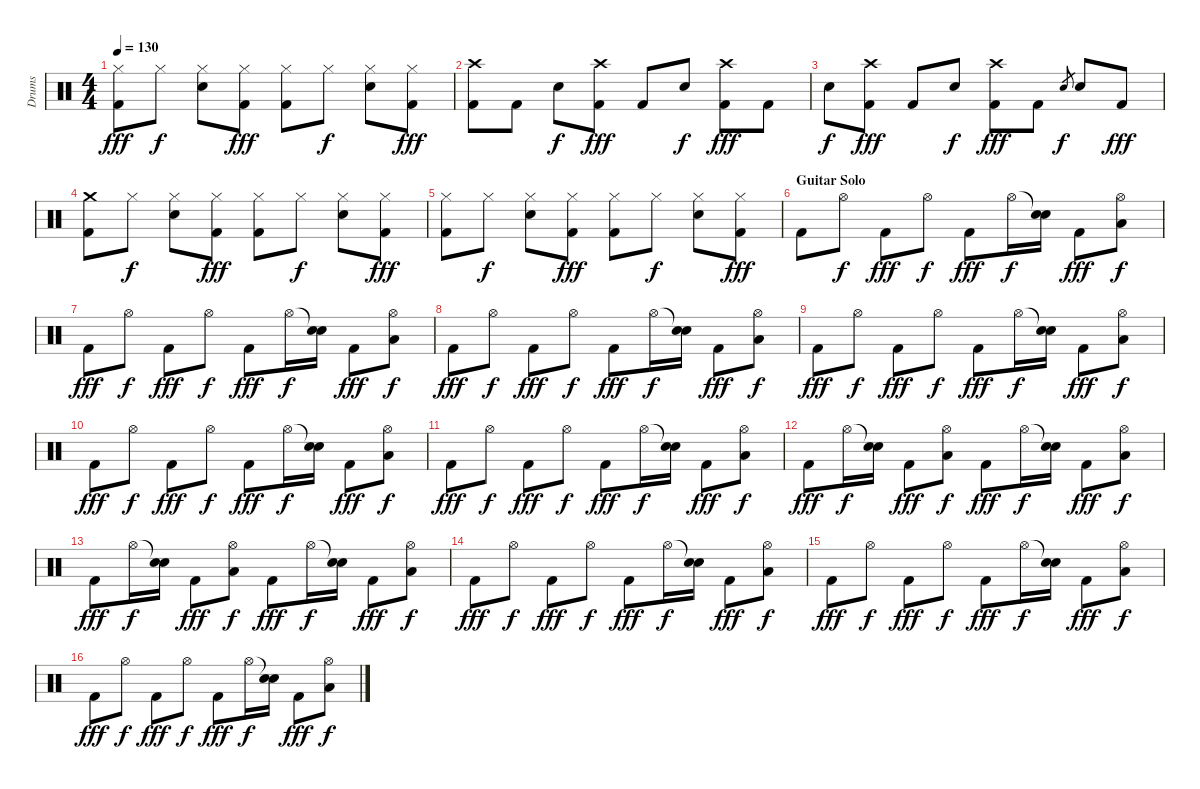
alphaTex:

\track ("Drums" "Drums") {instrument percussion}
\staff {score}
\articulation defaults
\ts (4 4)
\tempo 130
\clef neutral
\ks c
("Hi-Hat (closed)" "Kick (hit) 2").8{dy fff} "Hi-Hat (closed)".8{dy f} ("Hi-Hat (closed)" "Snare (hit) 2").8 ("Hi-Hat (closed)" "Kick (hit) 2").8{dy fff} ("Hi-Hat (closed)" "Kick (hit) 2").8 "Hi-Hat (closed)".8{dy f} ("Hi-Hat (closed)" "Snare (hit) 2").8 ("Hi-Hat (closed)" "Kick (hit) 2").8{dy fff} |
("Crash high (hit)" "Kick (hit) 2").8 "Kick (hit) 2".8 "Snare (hit) 2".8{dy f} ("Crash high (hit)" "Kick (hit) 2").8{dy fff} "Kick (hit) 2".8 "Snare (hit) 2".8{dy f} ("Crash high (hit)" "Kick (hit) 2").8{dy fff} "Kick (hit) 2".8 |
"Snare (hit) 2".8{dy f} ("Crash high (hit)" "Kick (hit) 2").8{dy fff} "Kick (hit) 2".8 "Snare (hit) 2".8{dy f} ("Crash high (hit)" "Kick (hit) 2").8{dy fff} "Kick (hit) 2".8 "Snare (hit) 2".8{gr dy f} "Snare (hit) 2".8 "Kick (hit) 2".8{dy fff} |
("Crash medium (hit)" "Kick (hit) 2").8 "Hi-Hat (closed)".8{dy f} ("Hi-Hat (closed)" "Snare (hit) 2").8 ("Hi-Hat (closed)" "Kick (hit) 2").8{dy fff} ("Hi-Hat (closed)" "Kick (hit) 2").8 "Hi-Hat (closed)".8{dy f} ("Hi-Hat (closed)" "Snare (hit) 2").8 ("Hi-Hat (closed)" "Kick (hit) 2").8{dy fff} |
("Hi-Hat (closed)" "Kick (hit) 2").8 "Hi-Hat (closed)".8{dy f} ("Hi-Hat (closed)" "Snare (hit) 2").8 ("Hi-Hat (closed)" "Kick (hit) 2").8{dy fff} ("Hi-Hat (closed)" "Kick (hit) 2").8 "Hi-Hat (closed)".8{dy f} ("Hi-Hat (closed)" "Snare (hit) 2").8 ("Hi-Hat (closed)" "Kick (hit) 2").8{dy fff} |
\section ("" "Guitar Solo")
"Kick (hit) 2".8 "Hi-Hat (open)".8{dy f} "Kick (hit) 2".8{dy fff} "Hi-Hat (open)".8{dy f} "Kick (hit) 2".8{dy fff} "Hi-Hat (open)".16{dy f} ("Snare (hit)"{t} "Snare (hit) 2").16 "Kick (hit) 2".8{dy fff} ("Hi-Hat (open)" "Low Tom (hit)").8{dy f} |
"Kick (hit) 2".8{dy fff} "Hi-Hat (open)".8{dy f} "Kick (hit) 2".8{dy fff} "Hi-Hat (open)".8{dy f} "Kick (hit) 2".8{dy fff} "Hi-Hat (open)".16{dy f} ("Snare (hit)"{t} "Snare (hit) 2").16 "Kick (hit) 2".8{dy fff} ("Hi-Hat (open)" "Low Tom (hit)").8{dy f} |
"Kick (hit) 2".8{dy fff} "Hi-Hat (open)".8{dy f} "Kick (hit) 2".8{dy fff} "Hi-Hat (open)".8{dy f} "Kick (hit) 2".8{dy fff} "Hi-Hat (open)".16{dy f} ("Snare (hit)"{t} "Snare (hit) 2").16 "Kick (hit) 2".8{dy fff} ("Hi-Hat (open)" "Low Tom (hit)").8{dy f} |
"Kick (hit) 2".8{dy fff} "Hi-Hat (open)".8{dy f} "Kick (hit) 2".8{dy fff} "Hi-Hat (open)".8{dy f} "Kick (hit) 2".8{dy fff} "Hi-Hat (open)".16{dy f} ("Snare (hit)"{t} "Snare (hit) 2").16 "Kick (hit) 2".8{dy fff} ("Hi-Hat (open)" "Low Tom (hit)").8{dy f} |
"Kick (hit) 2".8{dy fff} "Hi-Hat (open)".8{dy f} "Kick (hit) 2".8{dy fff} "Hi-Hat (open)".8{dy f} "Kick (hit) 2".8{dy fff} "Hi-Hat (open)".16{dy f} ("Snare (hit)"{t} "Snare (hit) 2").16 "Kick (hit) 2".8{dy fff} ("Hi-Hat (open)" "Low Tom (hit)").8{dy f} |
"Kick (hit) 2".8{dy fff} "Hi-Hat (open)".8{dy f} "Kick (hit) 2".8{dy fff} "Hi-Hat (open)".8{dy f} "Kick (hit) 2".8{dy fff} "Hi-Hat (open)".16{dy f} ("Snare (hit)"{t} "Snare (hit) 2").16 "Kick (hit) 2".8{dy fff} ("Hi-Hat (open)" "Low Tom (hit)").8{dy f} |
"Kick (hit) 2".8{dy fff} "Hi-Hat (open)".16{dy f} ("Snare (hit)"{t} "Snare (hit) 2").16 "Kick (hit) 2".8{dy fff} ("Hi-Hat (open)" "Low Tom (hit)").8{dy f} "Kick (hit) 2".8{dy fff} "Hi-Hat (open)".16{dy f} ("Snare (hit)"{t} "Snare (hit) 2").16 "Kick (hit) 2".8{dy fff} ("Hi-Hat (open)" "Low Tom (hit)").8{dy f} |
"Kick (hit) 2".8{dy fff} "Hi-Hat (open)".16{dy f} ("Snare (hit)"{t} "Snare (hit) 2").16 "Kick (hit) 2".8{dy fff} ("Hi-Hat (open)" "Low Tom (hit)").8{dy f} "Kick (hit) 2".8{dy fff} "Hi-Hat (open)".16{dy f} ("Snare (hit)"{t} "Snare (hit) 2").16 "Kick (hit) 2".8{dy fff} ("Hi-Hat (open)" "Low Tom (hit)").8{dy f} |
"Kick (hit) 2".8{dy fff} "Hi-Hat (open)".8{dy f} "Kick (hit) 2".8{dy fff} "Hi-Hat (open)".8{dy f} "Kick (hit) 2".8{dy fff} "Hi-Hat (open)".16{dy f} ("Snare (hit)"{t} "Snare (hit) 2").16 "Kick (hit) 2".8{dy fff} ("Hi-Hat (open)" "Low Tom (hit)").8{dy f} |
"Kick (hit) 2".8{dy fff} "Hi-Hat (open)".8{dy f} "Kick (hit) 2".8{dy fff} "Hi-Hat (open)".8{dy f} "Kick (hit) 2".8{dy fff} "Hi-Hat (open)".16{dy f} ("Snare (hit)"{t} "Snare (hit) 2").16 "Kick (hit) 2".8{dy fff} ("Hi-Hat (open)" "Low Tom (hit)").8{dy f} |
"Kick (hit) 2".8{dy fff} "Hi-Hat (open)".8{dy f} "Kick (hit) 2".8{dy fff} "Hi-Hat (open)".8{dy f} "Kick (hit) 2".8{dy fff} "Hi-Hat (open)".16{dy f} ("Snare (hit)"{t} "Snare (hit) 2").16 "Kick (hit) 2".8{dy fff} ("Hi-Hat (open)" "Low Tom (hit)").8{dy f}
